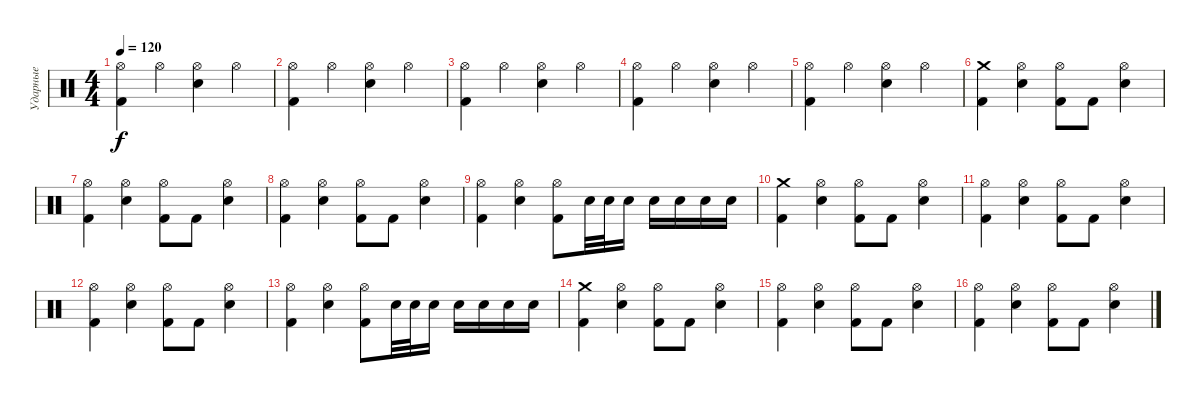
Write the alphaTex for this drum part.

\track ("Ударные" "Ударные") {instrument percussion}
\staff {score}
\articulation defaults
\ts (4 4)
\tempo 120
\clef neutral
\ks c
("Kick (hit) 2" "Hi-Hat (open)").4{dy f} "Hi-Hat (open)".4 ("Electric Snare (hit)" "Hi-Hat (open)").4 "Hi-Hat (open)".4 |
("Kick (hit) 2" "Hi-Hat (open)").4 "Hi-Hat (open)".4 ("Electric Snare (hit)" "Hi-Hat (open)").4 "Hi-Hat (open)".4 |
("Kick (hit) 2" "Hi-Hat (open)").4 "Hi-Hat (open)".4 ("Electric Snare (hit)" "Hi-Hat (open)").4 "Hi-Hat (open)".4 |
("Kick (hit) 2" "Hi-Hat (open)").4 "Hi-Hat (open)".4 ("Electric Snare (hit)" "Hi-Hat (open)").4 "Hi-Hat (open)".4 |
("Kick (hit) 2" "Hi-Hat (open)").4 "Hi-Hat (open)".4 ("Electric Snare (hit)" "Hi-Hat (open)").4 "Hi-Hat (open)".4 |
("Kick (hit) 2" "Crash medium (hit)").4 ("Electric Snare (hit)" "Hi-Hat (open)").4 ("Kick (hit) 2" "Hi-Hat (open)").8 "Kick (hit) 2".8 ("Electric Snare (hit)" "Hi-Hat (open)").4 |
("Kick (hit) 2" "Hi-Hat (open)").4 ("Electric Snare (hit)" "Hi-Hat (open)").4 ("Kick (hit) 2" "Hi-Hat (open)").8 "Kick (hit) 2".8 ("Electric Snare (hit)" "Hi-Hat (open)").4 |
("Kick (hit) 2" "Hi-Hat (open)").4 ("Electric Snare (hit)" "Hi-Hat (open)").4 ("Kick (hit) 2" "Hi-Hat (open)").8 "Kick (hit) 2".8 ("Electric Snare (hit)" "Hi-Hat (open)").4 |
("Kick (hit) 2" "Hi-Hat (open)").4 ("Electric Snare (hit)" "Hi-Hat (open)").4 ("Kick (hit) 2" "Hi-Hat (open)").8 "Electric Snare (hit)".32 "Electric Snare (hit)".32 "Electric Snare (hit)".16 "Electric Snare (hit)".16 "Electric Snare (hit)".16 "Electric Snare (hit)".16 "Electric Snare (hit)".16 |
("Kick (hit) 2" "Crash medium (hit)").4 ("Electric Snare (hit)" "Hi-Hat (open)").4 ("Kick (hit) 2" "Hi-Hat (open)").8 "Kick (hit) 2".8 ("Electric Snare (hit)" "Hi-Hat (open)").4 |
("Kick (hit) 2" "Hi-Hat (open)").4 ("Electric Snare (hit)" "Hi-Hat (open)").4 ("Kick (hit) 2" "Hi-Hat (open)").8 "Kick (hit) 2".8 ("Electric Snare (hit)" "Hi-Hat (open)").4 |
("Kick (hit) 2" "Hi-Hat (open)").4 ("Electric Snare (hit)" "Hi-Hat (open)").4 ("Kick (hit) 2" "Hi-Hat (open)").8 "Kick (hit) 2".8 ("Electric Snare (hit)" "Hi-Hat (open)").4 |
("Kick (hit) 2" "Hi-Hat (open)").4 ("Electric Snare (hit)" "Hi-Hat (open)").4 ("Kick (hit) 2" "Hi-Hat (open)").8 "Electric Snare (hit)".32 "Electric Snare (hit)".32 "Electric Snare (hit)".16 "Electric Snare (hit)".16 "Electric Snare (hit)".16 "Electric Snare (hit)".16 "Electric Snare (hit)".16 |
("Kick (hit) 2" "Crash medium (hit)").4{volume 10} ("Electric Snare (hit)" "Hi-Hat (open)").4 ("Kick (hit) 2" "Hi-Hat (open)").8 "Kick (hit) 2".8 ("Electric Snare (hit)" "Hi-Hat (open)").4 |
("Kick (hit) 2" "Hi-Hat (open)").4 ("Electric Snare (hit)" "Hi-Hat (open)").4 ("Kick (hit) 2" "Hi-Hat (open)").8 "Kick (hit) 2".8 ("Electric Snare (hit)" "Hi-Hat (open)").4 |
("Kick (hit) 2" "Hi-Hat (open)").4 ("Electric Snare (hit)" "Hi-Hat (open)").4 ("Kick (hit) 2" "Hi-Hat (open)").8 "Kick (hit) 2".8 ("Electric Snare (hit)" "Hi-Hat (open)").4
